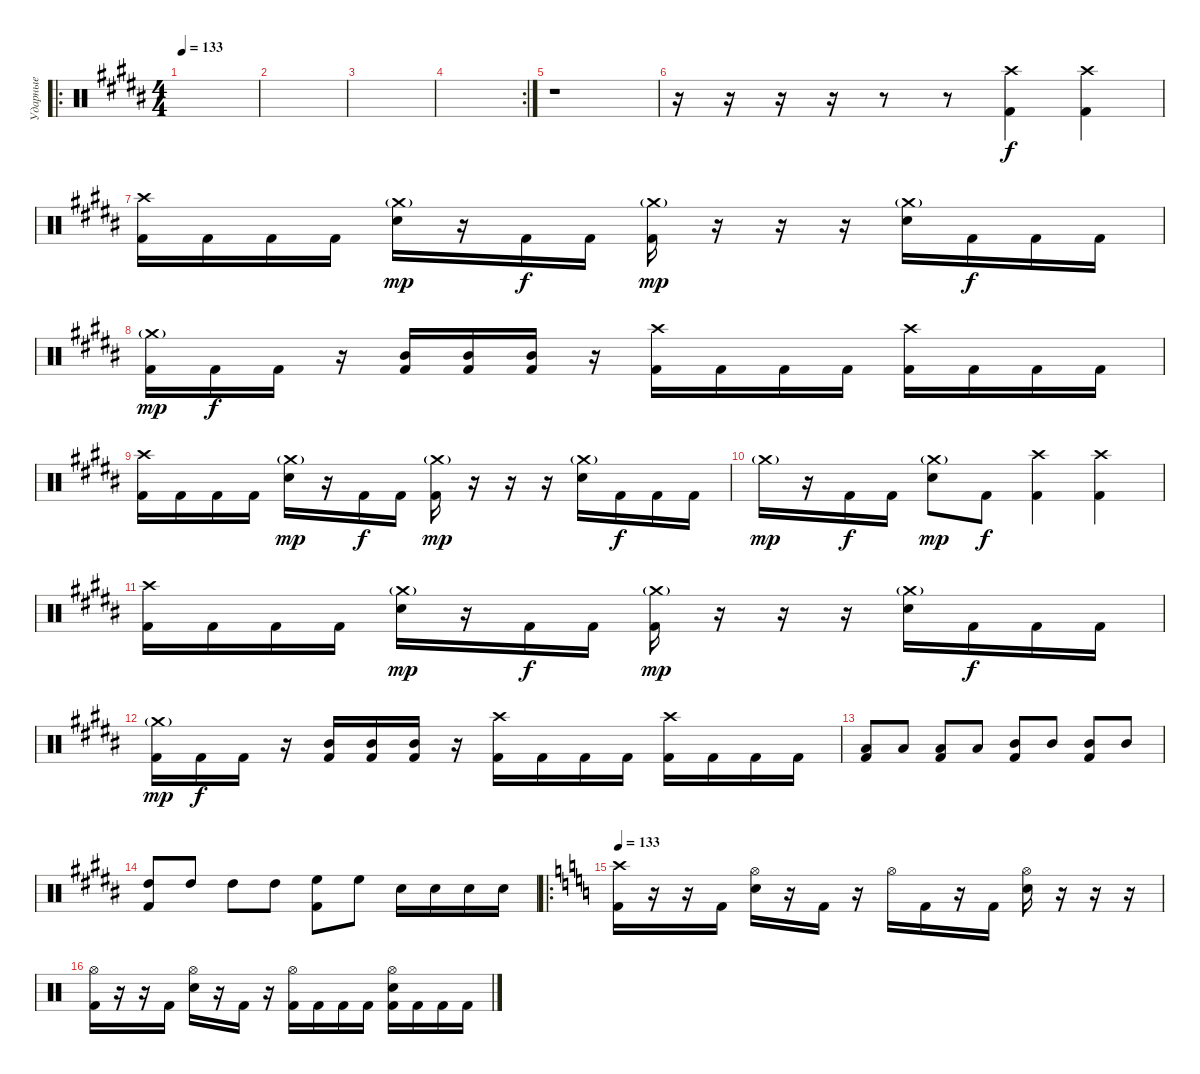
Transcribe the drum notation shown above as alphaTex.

\track ("Ударные" "Ударные") {instrument percussion}
\staff {score}
\articulation defaults
\ro
\ts (4 4)
\tempo 133
\clef neutral
\ks g#minor
|
|
|
\rc 2
|
r.1 |
r.16 r.16 r.16 r.16 r.8 r.8 ("Crash high (hit)" "Kick (hit) 2").4 ("Crash high (hit)" "Kick (hit) 2").4 |
("Crash high (hit)" "Kick (hit) 2").16 "Kick (hit) 2".16 "Kick (hit) 2".16 "Kick (hit) 2".16 ("Crash medium (hit)"{g} "Electric Snare (hit)").16{dy mp} r.16 "Kick (hit) 2".16{dy f} "Kick (hit) 2".16 ("Crash medium (hit)"{g} "Kick (hit) 2").16{dy mp} r.16 r.16 r.16 ("Crash medium (hit)"{g} "Electric Snare (hit)").16 "Kick (hit) 2".16{dy f} "Kick (hit) 2".16 "Kick (hit) 2".16 |
("Crash medium (hit)"{g} "Kick (hit) 2").16{dy mp} "Kick (hit) 2".16{dy f} "Kick (hit) 2".16 r.16 ("Mid Tom (hit)" "Kick (hit) 2").16 ("Mid Tom (hit)" "Kick (hit) 2").16 ("Mid Tom (hit)" "Kick (hit) 2").16 r.16 ("Crash high (hit)" "Kick (hit) 2").16 "Kick (hit) 2".16 "Kick (hit) 2".16 "Kick (hit) 2".16 ("Crash high (hit)" "Kick (hit) 2").16 "Kick (hit) 2".16 "Kick (hit) 2".16 "Kick (hit) 2".16 |
("Crash high (hit)" "Kick (hit) 2").16 "Kick (hit) 2".16 "Kick (hit) 2".16 "Kick (hit) 2".16 ("Crash medium (hit)"{g} "Electric Snare (hit)").16{dy mp} r.16 "Kick (hit) 2".16{dy f} "Kick (hit) 2".16 ("Crash medium (hit)"{g} "Kick (hit) 2").16{dy mp} r.16 r.16 r.16 ("Crash medium (hit)"{g} "Electric Snare (hit)").16 "Kick (hit) 2".16{dy f} "Kick (hit) 2".16 "Kick (hit) 2".16 |
"Crash medium (hit)"{g}.16{dy mp} r.16 "Kick (hit) 2".16{dy f} "Kick (hit) 2".16 ("Crash medium (hit)"{g} "Electric Snare (hit)").8{dy mp} "Kick (hit) 2".8{dy f} ("Crash high (hit)" "Kick (hit) 2").4 ("Crash high (hit)" "Kick (hit) 2").4 |
("Crash high (hit)" "Kick (hit) 2").16 "Kick (hit) 2".16 "Kick (hit) 2".16 "Kick (hit) 2".16 ("Crash medium (hit)"{g} "Electric Snare (hit)").16{dy mp} r.16 "Kick (hit) 2".16{dy f} "Kick (hit) 2".16 ("Crash medium (hit)"{g} "Kick (hit) 2").16{dy mp} r.16 r.16 r.16 ("Crash medium (hit)"{g} "Electric Snare (hit)").16 "Kick (hit) 2".16{dy f} "Kick (hit) 2".16 "Kick (hit) 2".16 |
("Crash medium (hit)"{g} "Kick (hit) 2").16{dy mp} "Kick (hit) 2".16{dy f} "Kick (hit) 2".16 r.16 ("Mid Tom (hit)" "Kick (hit) 2").16 ("Mid Tom (hit)" "Kick (hit) 2").16 ("Mid Tom (hit)" "Kick (hit) 2").16 r.16 ("Crash high (hit)" "Kick (hit) 2").16 "Kick (hit) 2".16 "Kick (hit) 2".16 "Kick (hit) 2".16 ("Crash high (hit)" "Kick (hit) 2").16 "Kick (hit) 2".16 "Kick (hit) 2".16 "Kick (hit) 2".16 |
("Kick (hit) 2" "Low Tom (hit)").8 "Low Tom (hit)".8 ("Kick (hit) 2" "Low Tom (hit)").8 "Low Tom (hit)".8 ("Kick (hit) 2" "Mid Tom (hit)").8 "Mid Tom (hit)".8 ("Kick (hit) 2" "Mid Tom (hit)").8 "Mid Tom (hit)".8 |
("Kick (hit) 2" "High Tom (hit)").8 "High Tom (hit)".8 "High Tom (hit)".8 "High Tom (hit)".8 ("Kick (hit) 2" "High Floor Tom (hit)").8 "High Floor Tom (hit)".8 "Electric Snare (hit)".16 "Electric Snare (hit)".16 "Electric Snare (hit)".16 "Electric Snare (hit)".16 |
\ro
\tempo 133
\ks c
("Crash high (hit)" "Kick (hit) 2").16 r.16 r.16 "Kick (hit) 2".16 ("Hi-Hat (open)" "Electric Snare (hit)").16 r.16 "Kick (hit) 2".16 r.16 "Hi-Hat (open)".16 "Kick (hit) 2".16 r.16 "Kick (hit) 2".16 ("Hi-Hat (open)" "Electric Snare (hit)").16 r.16 r.16 r.16 |
("Hi-Hat (open)" "Kick (hit) 2").16 r.16 r.16 "Kick (hit) 2".16 ("Hi-Hat (open)" "Electric Snare (hit)").16 r.16 "Kick (hit) 2".16 r.16 ("Hi-Hat (open)" "Kick (hit) 2").16 "Kick (hit) 2".16 "Kick (hit) 2".16 "Kick (hit) 2".16 ("Hi-Hat (open)" "Electric Snare (hit)" "Kick (hit) 2").16 "Kick (hit) 2".16 "Kick (hit) 2".16 "Kick (hit) 2".16
